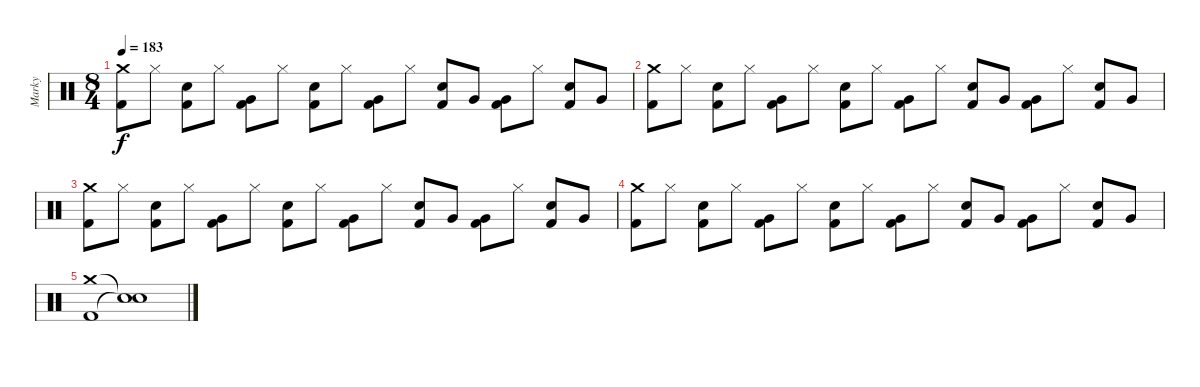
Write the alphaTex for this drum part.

\track ("Marky" "Marky") {instrument percussion}
\staff {score}
\articulation defaults
\ts (8 4)
\tempo 183
\clef neutral
\ks c
("Kick (hit) 2" "Crash medium (hit)").8{dy f} "Hi-Hat (closed)".8 ("Kick (hit) 2" "Snare (hit) 2").8 "Hi-Hat (closed)".8 ("Kick (hit) 2" "Very Low Tom (hit)").8 "Hi-Hat (closed)".8 ("Kick (hit) 2" "Snare (hit) 2").8 "Hi-Hat (closed)".8 ("Kick (hit) 2" "Very Low Tom (hit)").8 "Hi-Hat (closed)".8 ("Kick (hit) 2" "Snare (hit) 2").8 "Very Low Tom (hit)".8 ("Kick (hit) 2" "Very Low Tom (hit)").8 "Hi-Hat (closed)".8 ("Kick (hit) 2" "Snare (hit) 2").8 "Very Low Tom (hit)".8 |
("Kick (hit) 2" "Crash medium (hit)").8 "Hi-Hat (closed)".8 ("Kick (hit) 2" "Snare (hit) 2").8 "Hi-Hat (closed)".8 ("Kick (hit) 2" "Very Low Tom (hit)").8 "Hi-Hat (closed)".8 ("Kick (hit) 2" "Snare (hit) 2").8 "Hi-Hat (closed)".8 ("Kick (hit) 2" "Very Low Tom (hit)").8 "Hi-Hat (closed)".8 ("Kick (hit) 2" "Snare (hit) 2").8 "Very Low Tom (hit)".8 ("Kick (hit) 2" "Very Low Tom (hit)").8 "Hi-Hat (closed)".8 ("Kick (hit) 2" "Snare (hit) 2").8 "Very Low Tom (hit)".8 |
("Kick (hit) 2" "Crash medium (hit)").8 "Hi-Hat (closed)".8 ("Kick (hit) 2" "Snare (hit) 2").8 "Hi-Hat (closed)".8 ("Kick (hit) 2" "Very Low Tom (hit)").8 "Hi-Hat (closed)".8 ("Kick (hit) 2" "Snare (hit) 2").8 "Hi-Hat (closed)".8 ("Kick (hit) 2" "Very Low Tom (hit)").8 "Hi-Hat (closed)".8 ("Kick (hit) 2" "Snare (hit) 2").8 "Very Low Tom (hit)".8 ("Kick (hit) 2" "Very Low Tom (hit)").8 "Hi-Hat (closed)".8 ("Kick (hit) 2" "Snare (hit) 2").8 "Very Low Tom (hit)".8 |
("Kick (hit) 2" "Crash medium (hit)").8 "Hi-Hat (closed)".8 ("Kick (hit) 2" "Snare (hit) 2").8 "Hi-Hat (closed)".8 ("Kick (hit) 2" "Very Low Tom (hit)").8 "Hi-Hat (closed)".8 ("Kick (hit) 2" "Snare (hit) 2").8 "Hi-Hat (closed)".8 ("Kick (hit) 2" "Very Low Tom (hit)").8 "Hi-Hat (closed)".8 ("Kick (hit) 2" "Snare (hit) 2").8 "Very Low Tom (hit)".8 ("Kick (hit) 2" "Very Low Tom (hit)").8 "Hi-Hat (closed)".8 ("Kick (hit) 2" "Snare (hit) 2").8 "Very Low Tom (hit)".8 |
("Kick (hit) 2" "Crash medium (hit)").1 ("Snare (hit)"{t} "Snare (hit)"{t}).1
